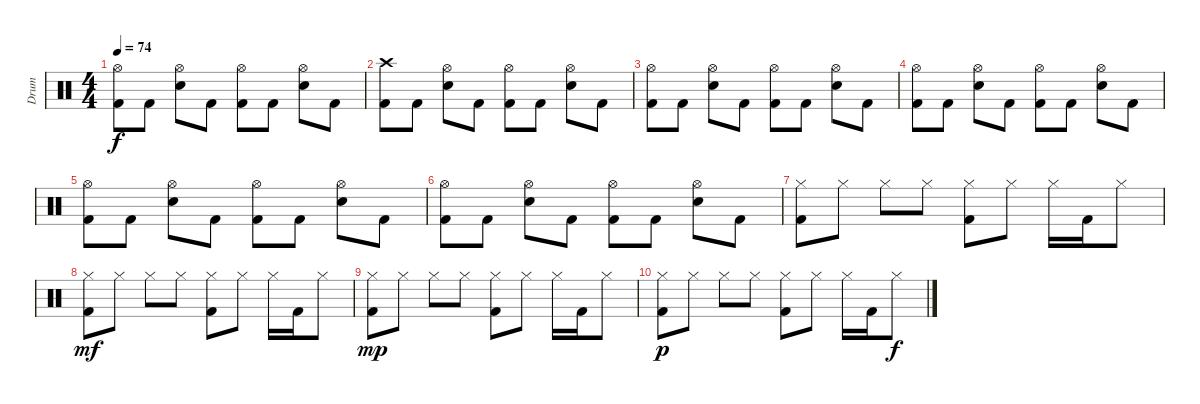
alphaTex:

\track ("Drum" "Drum") {instrument percussion}
\staff {score}
\articulation defaults
\ts (4 4)
\tempo 74
\clef neutral
\ks c
("Hi-Hat (open)" "Kick (hit) 2").8{dy f} "Kick (hit) 2".8 ("Snare (hit) 2" "Hi-Hat (open)").8 "Kick (hit) 2".8 ("Kick (hit) 2" "Hi-Hat (open)").8 "Kick (hit) 2".8 ("Snare (hit) 2" "Hi-Hat (open)").8 "Kick (hit) 2".8 |
("Kick (hit) 2" "Crash high (hit)").8 "Kick (hit) 2".8 ("Snare (hit) 2" "Hi-Hat (open)").8 "Kick (hit) 2".8 ("Kick (hit) 2" "Hi-Hat (open)").8 "Kick (hit) 2".8 ("Snare (hit) 2" "Hi-Hat (open)").8 "Kick (hit) 2".8 |
("Hi-Hat (open)" "Kick (hit) 2").8 "Kick (hit) 2".8 ("Snare (hit) 2" "Hi-Hat (open)").8 "Kick (hit) 2".8 ("Kick (hit) 2" "Hi-Hat (open)").8 "Kick (hit) 2".8 ("Snare (hit) 2" "Hi-Hat (open)").8 "Kick (hit) 2".8 |
("Hi-Hat (open)" "Kick (hit) 2").8 "Kick (hit) 2".8 ("Snare (hit) 2" "Hi-Hat (open)").8 "Kick (hit) 2".8 ("Kick (hit) 2" "Hi-Hat (open)").8 "Kick (hit) 2".8 ("Snare (hit) 2" "Hi-Hat (open)").8 "Kick (hit) 2".8 |
("Hi-Hat (open)" "Kick (hit) 2").8 "Kick (hit) 2".8 ("Snare (hit) 2" "Hi-Hat (open)").8 "Kick (hit) 2".8 ("Kick (hit) 2" "Hi-Hat (open)").8 "Kick (hit) 2".8 ("Snare (hit) 2" "Hi-Hat (open)").8 "Kick (hit) 2".8 |
("Hi-Hat (open)" "Kick (hit) 2").8 "Kick (hit) 2".8 ("Snare (hit) 2" "Hi-Hat (open)").8 "Kick (hit) 2".8 ("Kick (hit) 2" "Hi-Hat (open)").8 "Kick (hit) 2".8 ("Snare (hit) 2" "Hi-Hat (open)").8 "Kick (hit) 2".8 |
("Kick (hit) 2" "Hi-Hat (closed)").8 "Hi-Hat (closed)".8 "Hi-Hat (closed)".8 "Hi-Hat (closed)".8 ("Hi-Hat (closed)" "Kick (hit) 2").8 "Hi-Hat (closed)".8 "Hi-Hat (closed)".16 "Kick (hit) 2".16 "Hi-Hat (closed)".8 |
("Kick (hit) 2" "Hi-Hat (closed)").8{dy mf} "Hi-Hat (closed)".8 "Hi-Hat (closed)".8 "Hi-Hat (closed)".8 ("Hi-Hat (closed)" "Kick (hit) 2").8 "Hi-Hat (closed)".8 "Hi-Hat (closed)".16 "Kick (hit) 2".16 "Hi-Hat (closed)".8 |
("Kick (hit) 2" "Hi-Hat (closed)").8{dy mp} "Hi-Hat (closed)".8 "Hi-Hat (closed)".8 "Hi-Hat (closed)".8 ("Hi-Hat (closed)" "Kick (hit) 2").8 "Hi-Hat (closed)".8 "Hi-Hat (closed)".16 "Kick (hit) 2".16 "Hi-Hat (closed)".8 |
("Kick (hit) 2" "Hi-Hat (closed)").8{dy p} "Hi-Hat (closed)".8 "Hi-Hat (closed)".8 "Hi-Hat (closed)".8 ("Hi-Hat (closed)" "Kick (hit) 2").8 "Hi-Hat (closed)".8 "Hi-Hat (closed)".16 "Kick (hit) 2".16 "Hi-Hat (closed)".8{dy f}
